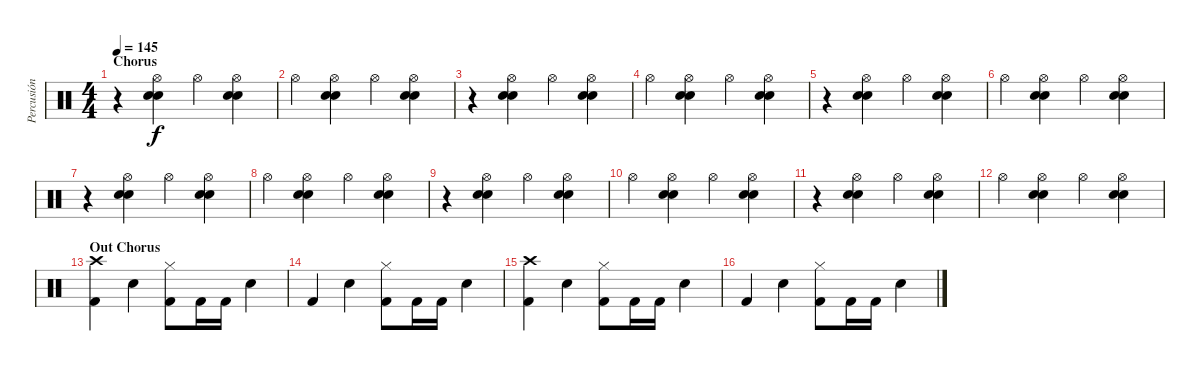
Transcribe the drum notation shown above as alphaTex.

\track ("Percusión" "Percusión") {instrument percussion}
\staff {score}
\articulation defaults
\ts (4 4)
\section ("" "Chorus")
\tempo 145
\clef neutral
\ks c
r.4{dy f} ("Hi-Hat (open)" "Snare (hit) 2" "Snare (hit) 2").4 "Hi-Hat (open)".4 ("Hi-Hat (open)" "Snare (hit) 2" "Snare (hit) 2").4 |
"Hi-Hat (open)".4 ("Hi-Hat (open)" "Snare (hit) 2" "Snare (hit) 2").4 "Hi-Hat (open)".4 ("Hi-Hat (open)" "Snare (hit) 2" "Snare (hit) 2").4 |
r.4 ("Hi-Hat (open)" "Snare (hit) 2" "Snare (hit) 2").4 "Hi-Hat (open)".4 ("Hi-Hat (open)" "Snare (hit) 2" "Snare (hit) 2").4 |
"Hi-Hat (open)".4 ("Hi-Hat (open)" "Snare (hit) 2" "Snare (hit) 2").4 "Hi-Hat (open)".4 ("Hi-Hat (open)" "Snare (hit) 2" "Snare (hit) 2").4 |
r.4 ("Hi-Hat (open)" "Snare (hit) 2" "Snare (hit) 2").4 "Hi-Hat (open)".4 ("Hi-Hat (open)" "Snare (hit) 2" "Snare (hit) 2").4 |
"Hi-Hat (open)".4 ("Hi-Hat (open)" "Snare (hit) 2" "Snare (hit) 2").4 "Hi-Hat (open)".4 ("Hi-Hat (open)" "Snare (hit) 2" "Snare (hit) 2").4 |
r.4 ("Hi-Hat (open)" "Snare (hit) 2" "Snare (hit) 2").4 "Hi-Hat (open)".4 ("Hi-Hat (open)" "Snare (hit) 2" "Snare (hit) 2").4 |
"Hi-Hat (open)".4 ("Hi-Hat (open)" "Snare (hit) 2" "Snare (hit) 2").4 "Hi-Hat (open)".4 ("Hi-Hat (open)" "Snare (hit) 2" "Snare (hit) 2").4 |
r.4 ("Hi-Hat (open)" "Snare (hit) 2" "Snare (hit) 2").4 "Hi-Hat (open)".4 ("Hi-Hat (open)" "Snare (hit) 2" "Snare (hit) 2").4 |
"Hi-Hat (open)".4 ("Hi-Hat (open)" "Snare (hit) 2" "Snare (hit) 2").4 "Hi-Hat (open)".4 ("Hi-Hat (open)" "Snare (hit) 2" "Snare (hit) 2").4 |
r.4 ("Hi-Hat (open)" "Snare (hit) 2" "Snare (hit) 2").4 "Hi-Hat (open)".4 ("Hi-Hat (open)" "Snare (hit) 2" "Snare (hit) 2").4 |
"Hi-Hat (open)".4 ("Hi-Hat (open)" "Snare (hit) 2" "Snare (hit) 2").4 "Hi-Hat (open)".4 ("Hi-Hat (open)" "Snare (hit) 2" "Snare (hit) 2").4 |
\section ("" "Out Chorus")
("Crash high (hit)" "Kick (hit) 2").4 "Snare (hit) 2".4 ("Hi-Hat (closed)" "Kick (hit) 2").8 "Kick (hit) 2".16 "Kick (hit) 2".16 "Snare (hit) 2".4 |
"Kick (hit) 2".4 "Snare (hit) 2".4 ("Hi-Hat (closed)" "Kick (hit) 2").8 "Kick (hit) 2".16 "Kick (hit) 2".16 "Snare (hit) 2".4 |
("Crash high (hit)" "Kick (hit) 2").4 "Snare (hit) 2".4 ("Hi-Hat (closed)" "Kick (hit) 2").8 "Kick (hit) 2".16 "Kick (hit) 2".16 "Snare (hit) 2".4 |
"Kick (hit) 2".4 "Snare (hit) 2".4 ("Hi-Hat (closed)" "Kick (hit) 2").8 "Kick (hit) 2".16 "Kick (hit) 2".16 "Snare (hit) 2".4
